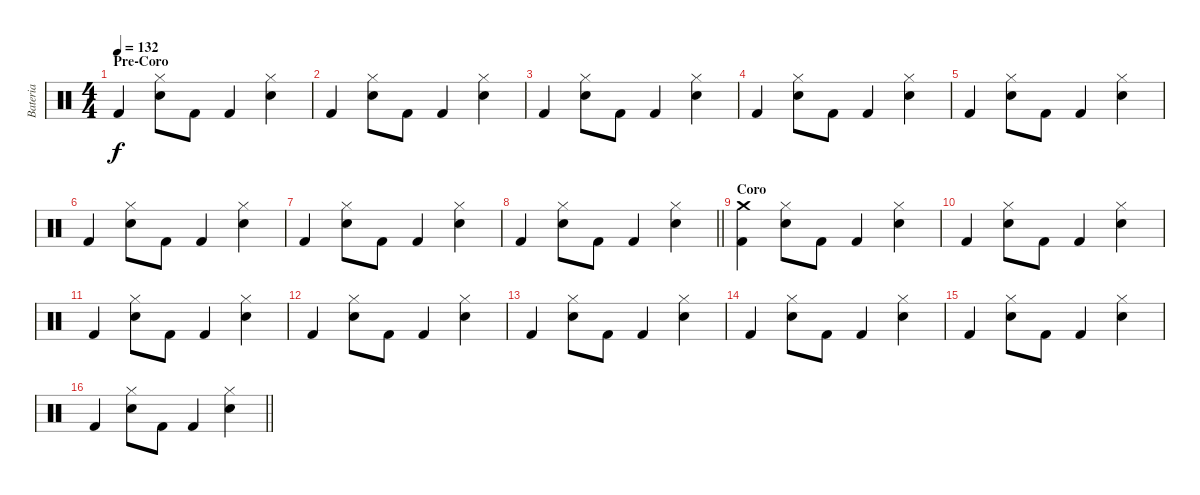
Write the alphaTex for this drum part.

\track ("Bateria" "Bateria") {instrument percussion}
\staff {score}
\articulation defaults
\ts (4 4)
\section ("" "Pre-Coro")
\tempo 132
\clef neutral
\ks c "Kick (hit) 2".4{dy f}
("Electric Snare (hit)" "Hi-Hat (closed)").8 "Kick (hit) 2".8 "Kick (hit) 2".4 ("Electric Snare (hit)" "Hi-Hat (closed)").4 |
"Kick (hit) 2".4 ("Electric Snare (hit)" "Hi-Hat (closed)").8 "Kick (hit) 2".8 "Kick (hit) 2".4 ("Electric Snare (hit)" "Hi-Hat (closed)").4 |
"Kick (hit) 2".4 ("Electric Snare (hit)" "Hi-Hat (closed)").8 "Kick (hit) 2".8 "Kick (hit) 2".4 ("Electric Snare (hit)" "Hi-Hat (closed)").4 |
"Kick (hit) 2".4 ("Electric Snare (hit)" "Hi-Hat (closed)").8 "Kick (hit) 2".8 "Kick (hit) 2".4 ("Electric Snare (hit)" "Hi-Hat (closed)").4 |
"Kick (hit) 2".4 ("Electric Snare (hit)" "Hi-Hat (closed)").8 "Kick (hit) 2".8 "Kick (hit) 2".4 ("Electric Snare (hit)" "Hi-Hat (closed)").4 |
"Kick (hit) 2".4 ("Electric Snare (hit)" "Hi-Hat (closed)").8 "Kick (hit) 2".8 "Kick (hit) 2".4 ("Electric Snare (hit)" "Hi-Hat (closed)").4 |
"Kick (hit) 2".4 ("Electric Snare (hit)" "Hi-Hat (closed)").8 "Kick (hit) 2".8 "Kick (hit) 2".4 ("Electric Snare (hit)" "Hi-Hat (closed)").4 |
\barLineRight lightlight "Kick (hit) 2".4
("Electric Snare (hit)" "Hi-Hat (closed)").8 "Kick (hit) 2".8 "Kick (hit) 2".4 ("Electric Snare (hit)" "Hi-Hat (closed)").4 |
\section ("" "Coro")
("Kick (hit) 2" "Crash medium (hit)").4 ("Electric Snare (hit)" "Hi-Hat (closed)").8 "Kick (hit) 2".8 "Kick (hit) 2".4 ("Electric Snare (hit)" "Hi-Hat (closed)").4 |
"Kick (hit) 2".4 ("Electric Snare (hit)" "Hi-Hat (closed)").8 "Kick (hit) 2".8 "Kick (hit) 2".4 ("Electric Snare (hit)" "Hi-Hat (closed)").4 |
"Kick (hit) 2".4 ("Electric Snare (hit)" "Hi-Hat (closed)").8 "Kick (hit) 2".8 "Kick (hit) 2".4 ("Electric Snare (hit)" "Hi-Hat (closed)").4 |
"Kick (hit) 2".4 ("Electric Snare (hit)" "Hi-Hat (closed)").8 "Kick (hit) 2".8 "Kick (hit) 2".4 ("Electric Snare (hit)" "Hi-Hat (closed)").4 |
"Kick (hit) 2".4 ("Electric Snare (hit)" "Hi-Hat (closed)").8 "Kick (hit) 2".8 "Kick (hit) 2".4 ("Electric Snare (hit)" "Hi-Hat (closed)").4 |
"Kick (hit) 2".4 ("Electric Snare (hit)" "Hi-Hat (closed)").8 "Kick (hit) 2".8 "Kick (hit) 2".4 ("Electric Snare (hit)" "Hi-Hat (closed)").4 |
"Kick (hit) 2".4 ("Electric Snare (hit)" "Hi-Hat (closed)").8 "Kick (hit) 2".8 "Kick (hit) 2".4 ("Electric Snare (hit)" "Hi-Hat (closed)").4 |
\barLineRight lightlight "Kick (hit) 2".4
("Electric Snare (hit)" "Hi-Hat (closed)").8 "Kick (hit) 2".8 "Kick (hit) 2".4 ("Electric Snare (hit)" "Hi-Hat (closed)").4
